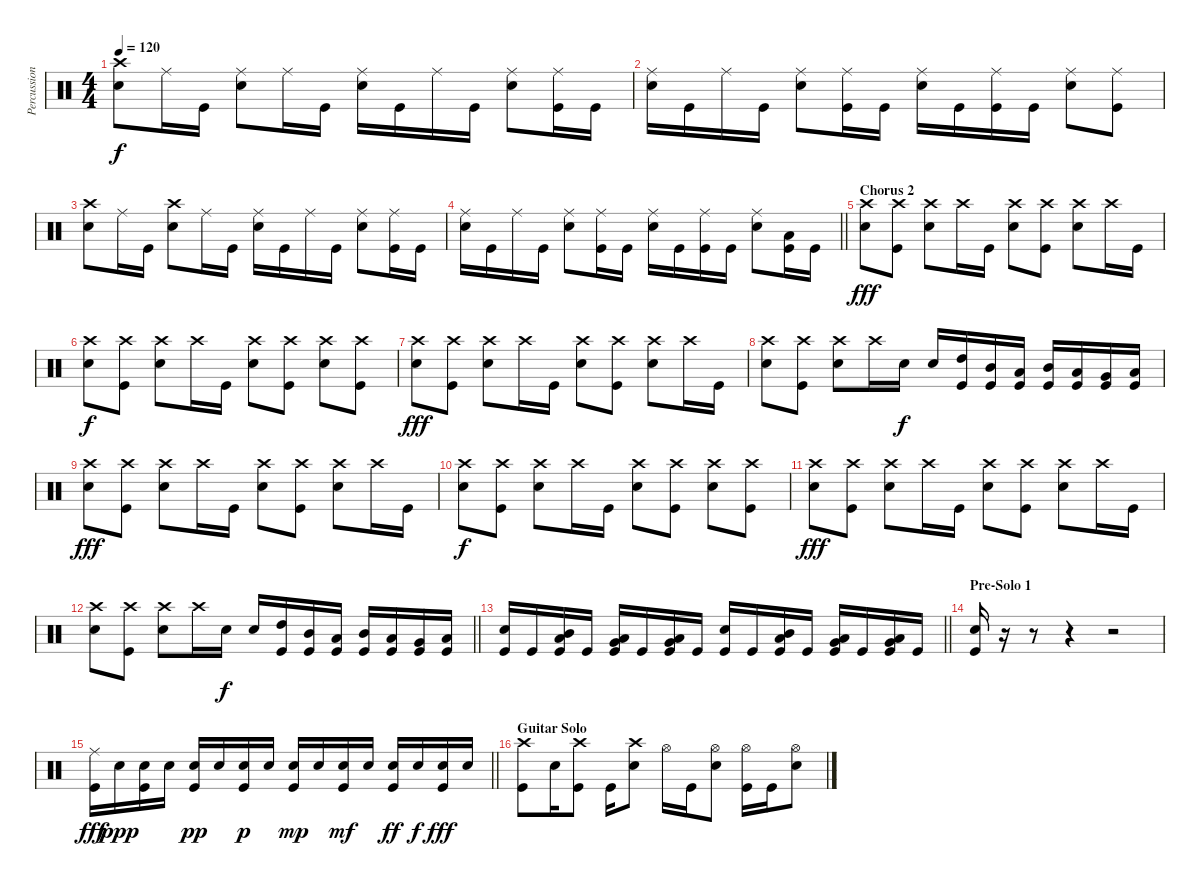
\track ("Percussion" "Percussion") {instrument percussion}
\staff {score}
\articulation defaults
\ts (4 4)
\tempo 120
\clef neutral
\ks c
("Crash high (hit)" "Snare (hit) 2").8{dy f} "Ride (middle)".16 "Kick (hit)".16 ("Ride (middle)" "Snare (hit) 2").8 "Ride (middle)".16 "Kick (hit)".16 ("Ride (middle)" "Snare (hit) 2").16 "Kick (hit)".16 "Ride (middle)".16 "Kick (hit)".16 ("Ride (middle)" "Snare (hit) 2").8 ("Ride (middle)" "Kick (hit)").16 "Kick (hit)".16 |
("Ride (middle)" "Snare (hit) 2").16 "Kick (hit)".16 "Ride (middle)".16 "Kick (hit)".16 ("Ride (middle)" "Snare (hit) 2").8 ("Ride (middle)" "Kick (hit)").16 "Kick (hit)".16 ("Ride (middle)" "Snare (hit) 2").16 "Kick (hit)".16 ("Ride (middle)" "Kick (hit)").16 "Kick (hit)".16 ("Ride (middle)" "Snare (hit) 2").8 ("Ride (middle)" "Kick (hit)").8 |
("Crash high (hit)" "Snare (hit) 2").8 "Ride (middle)".16 "Kick (hit)".16 ("Crash high (hit)" "Snare (hit) 2").8 "Ride (middle)".16 "Kick (hit)".16 ("Ride (middle)" "Snare (hit) 2").16 "Kick (hit)".16 "Ride (middle)".16 "Kick (hit)".16 ("Ride (middle)" "Snare (hit) 2").8 ("Ride (middle)" "Kick (hit)").16 "Kick (hit)".16 |
\barLineRight lightlight
("Ride (middle)" "Snare (hit) 2").16 "Kick (hit)".16 "Ride (middle)".16 "Kick (hit)".16 ("Ride (middle)" "Snare (hit) 2").8 ("Ride (middle)" "Kick (hit)").16 "Kick (hit)".16 ("Ride (middle)" "Snare (hit) 2").16 "Kick (hit)".16 ("Ride (middle)" "Kick (hit)").16 "Kick (hit)".16 ("Ride (middle)" "Snare (hit) 2").8 ("Low Tom (hit)" "Kick (hit)").16 "Kick (hit)".16 |
\section ("" "Chorus 2")
("Crash high (hit)" "Snare (hit) 2").8{dy fff} ("Crash high (hit)" "Kick (hit)").8 ("Crash high (hit)" "Snare (hit) 2").8 "Crash high (hit)".16 "Kick (hit)".16 ("Crash high (hit)" "Snare (hit) 2").8 ("Crash high (hit)" "Kick (hit)").8 ("Crash high (hit)" "Snare (hit) 2").8 "Crash high (hit)".16 "Kick (hit)".16 |
("Crash high (hit)" "Snare (hit) 2").8{dy f} ("Crash high (hit)" "Kick (hit)").8 ("Crash high (hit)" "Snare (hit) 2").8 "Crash high (hit)".16 "Kick (hit)".16 ("Crash high (hit)" "Snare (hit) 2").8 ("Crash high (hit)" "Kick (hit)").8 ("Crash high (hit)" "Snare (hit) 2").8 ("Crash high (hit)" "Kick (hit)").8 |
("Crash high (hit)" "Snare (hit) 2").8{dy fff} ("Crash high (hit)" "Kick (hit)").8 ("Crash high (hit)" "Snare (hit) 2").8 "Crash high (hit)".16 "Kick (hit)".16 ("Crash high (hit)" "Snare (hit) 2").8 ("Crash high (hit)" "Kick (hit)").8 ("Crash high (hit)" "Snare (hit) 2").8 "Crash high (hit)".16 "Kick (hit)".16 |
("Crash high (hit)" "Snare (hit) 2").8 ("Crash high (hit)" "Kick (hit)").8 ("Crash high (hit)" "Snare (hit) 2").8 "Crash high (hit)".16 "Snare (hit) 2".16{dy f} "Snare (hit) 2".16 ("High Tom (hit)" "Kick (hit)").16 ("Mid Tom (hit)" "Kick (hit)").16 ("Low Tom (hit)" "Kick (hit)").16 ("Mid Tom (hit)" "Kick (hit)").16 ("Low Tom (hit)" "Kick (hit)").16 ("Very Low Tom (hit)" "Kick (hit)").16 ("Low Floor Tom (hit)" "Kick (hit)").16 |
("Crash high (hit)" "Snare (hit) 2").8{dy fff} ("Crash high (hit)" "Kick (hit)").8 ("Crash high (hit)" "Snare (hit) 2").8 "Crash high (hit)".16 "Kick (hit)".16 ("Crash high (hit)" "Snare (hit) 2").8 ("Crash high (hit)" "Kick (hit)").8 ("Crash high (hit)" "Snare (hit) 2").8 "Crash high (hit)".16 "Kick (hit)".16 |
("Crash high (hit)" "Snare (hit) 2").8{dy f} ("Crash high (hit)" "Kick (hit)").8 ("Crash high (hit)" "Snare (hit) 2").8 "Crash high (hit)".16 "Kick (hit)".16 ("Crash high (hit)" "Snare (hit) 2").8 ("Crash high (hit)" "Kick (hit)").8 ("Crash high (hit)" "Snare (hit) 2").8 ("Crash high (hit)" "Kick (hit)").8 |
("Crash high (hit)" "Snare (hit) 2").8{dy fff} ("Crash high (hit)" "Kick (hit)").8 ("Crash high (hit)" "Snare (hit) 2").8 "Crash high (hit)".16 "Kick (hit)".16 ("Crash high (hit)" "Snare (hit) 2").8 ("Crash high (hit)" "Kick (hit)").8 ("Crash high (hit)" "Snare (hit) 2").8 "Crash high (hit)".16 "Kick (hit)".16 |
\barLineRight lightlight
("Crash high (hit)" "Snare (hit) 2").8 ("Crash high (hit)" "Kick (hit)").8 ("Crash high (hit)" "Snare (hit) 2").8 "Crash high (hit)".16 "Snare (hit) 2".16{dy f} "Snare (hit) 2".16 ("High Tom (hit)" "Kick (hit)").16 ("Mid Tom (hit)" "Kick (hit)").16 ("Low Tom (hit)" "Kick (hit)").16 ("Mid Tom (hit)" "Kick (hit)").16 ("Low Tom (hit)" "Kick (hit)").16 ("Very Low Tom (hit)" "Kick (hit)").16 ("Low Floor Tom (hit)" "Kick (hit)").16 |
\barLineRight lightlight
("Snare (hit) 2" "Kick (hit)").16 "Kick (hit)".16 ("Mid Tom (hit)" "Low Tom (hit)" "Kick (hit)").16 "Kick (hit)".16 ("Low Tom (hit)" "Very Low Tom (hit)" "Kick (hit)").16 "Kick (hit)".16 ("Very Low Tom (hit)" "Low Floor Tom (hit)" "Kick (hit)").16 "Kick (hit)".16 ("Snare (hit) 2" "Kick (hit)").16 "Kick (hit)".16 ("Mid Tom (hit)" "Low Tom (hit)" "Kick (hit)").16 "Kick (hit)".16 ("Low Tom (hit)" "Very Low Tom (hit)" "Kick (hit)").16 "Kick (hit)".16 ("Very Low Tom (hit)" "Low Floor Tom (hit)" "Kick (hit)").16 "Kick (hit)".16 |
\section ("" "Pre-Solo 1")
("Snare (hit) 2" "Kick (hit)").16 r.16 r.8 r.4 r.2 |
\barLineRight lightlight
("Ride (middle)" "Kick (hit)").16{dy fff} "Snare (hit) 2".16{dy ppp} ("Snare (hit) 2" "Kick (hit)").16 "Snare (hit) 2".16 ("Snare (hit) 2" "Kick (hit)").16{dy pp} "Snare (hit) 2".16 ("Snare (hit) 2" "Kick (hit)").16{dy p} "Snare (hit) 2".16 ("Snare (hit) 2" "Kick (hit)").16{dy mp} "Snare (hit) 2".16 ("Snare (hit) 2" "Kick (hit)").16{dy mf} "Snare (hit) 2".16 ("Snare (hit) 2" "Kick (hit)").16{dy ff} "Snare (hit) 2".16{dy f} ("Snare (hit) 2" "Kick (hit)").16{dy fff} "Snare (hit) 2".16 |
\section ("" "Guitar Solo")
("Crash high (hit)" "Kick (hit)").8 "Snare (hit) 2".16 ("Crash high (hit)" "Kick (hit)").8 "Kick (hit)".16 ("Crash high (hit)" "Snare (hit) 2").8 "Hi-Hat (open)".16 "Kick (hit)".16 ("Hi-Hat (open)" "Snare (hit) 2").8 ("Hi-Hat (open)" "Kick (hit)").16 "Kick (hit)".16 ("Hi-Hat (open)" "Snare (hit) 2").8
